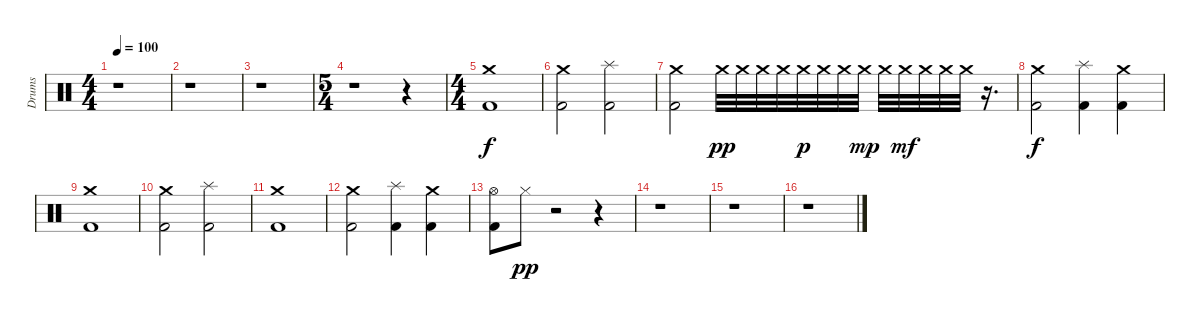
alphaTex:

\track ("Drums" "Drums") {instrument percussion}
\staff {score}
\articulation defaults
\ts (4 4)
\tempo 100
\clef neutral
\ks c
r.1{dy f} |
r.1 |
r.1 |
\ts (5 4)
r.1 r.4 |
\ts (4 4)
\section ("" "")
("Kick (hit) 2" "Crash medium (hit)").1 |
("Kick (hit) 2" "Crash medium (hit)").2 ("Kick (hit) 2" "Splash (hit)").2 |
("Kick (hit) 2" "Crash medium (hit)").2 "Crash medium (hit)".32{dy pp} "Crash medium (hit)".32 "Crash medium (hit)".32 "Crash medium (hit)".32 "Crash medium (hit)".32{dy p} "Crash medium (hit)".32 "Crash medium (hit)".32 "Crash medium (hit)".32{dy mp} "Crash medium (hit)".32 "Crash medium (hit)".32{dy mf} "Crash medium (hit)".32 "Crash medium (hit)".32 "Crash medium (hit)".32 r.16{d} |
("Kick (hit) 2" "Crash medium (hit)").2{dy f} ("Kick (hit) 2" "Splash (hit)").4 ("Kick (hit) 2" "Crash medium (hit)").4 |
("Kick (hit) 2" "Crash medium (hit)").1 |
("Kick (hit) 2" "Crash medium (hit)").2 ("Kick (hit) 2" "Splash (hit)").2 |
("Kick (hit) 2" "Crash medium (hit)").1 |
("Kick (hit) 2" "Crash medium (hit)").2 ("Kick (hit) 2" "Splash (hit)").4 ("Kick (hit) 2" "Crash medium (hit)").4 |
("Kick (hit) 2" "Hi-Hat (open)").8 "Hi-Hat (closed)".8{dy pp} r.2 r.4 |
r.1 |
r.1 |
r.1
